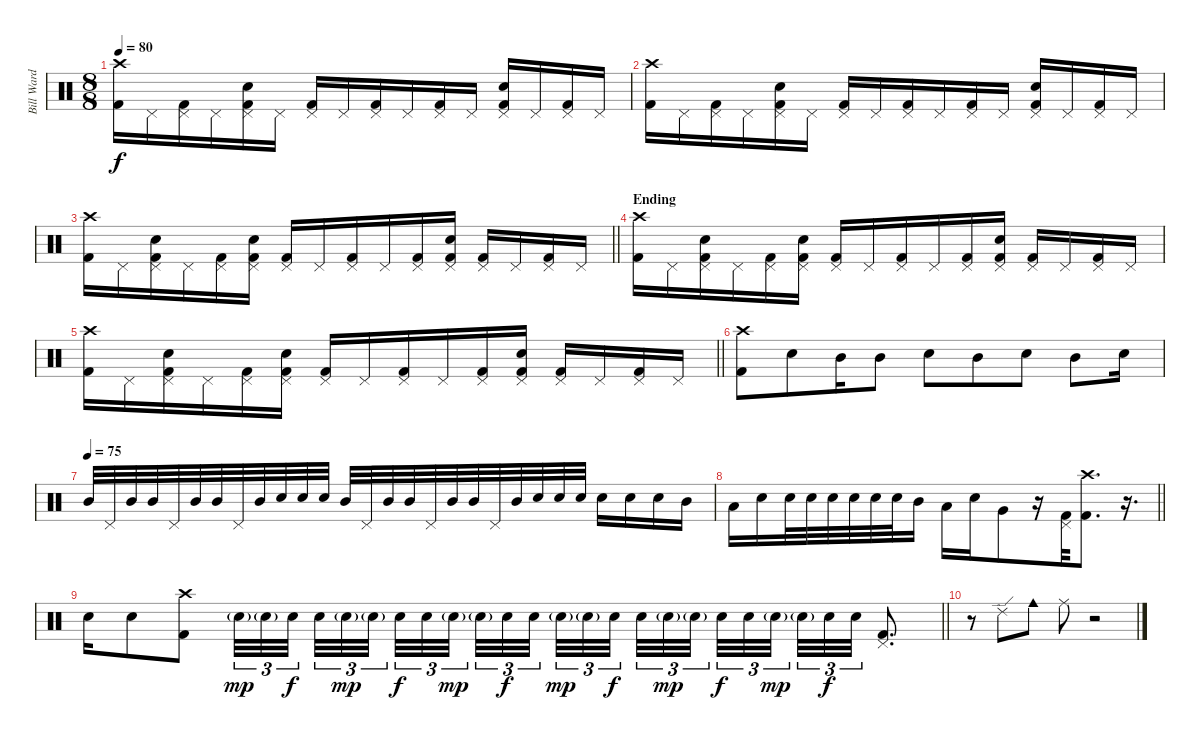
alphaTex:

\track ("Bill Ward (Drums)" "Bill Ward ") {instrument percussion}
\staff {score}
\articulation defaults
\ts (8 8)
\tempo 80
\clef neutral
\ks c
("Kick (hit) 2" "Crash high (hit)").16{dy f} "Pedal Hi-Hat (hit)".16 ("Kick (hit) 2" "Pedal Hi-Hat (hit)").16 "Pedal Hi-Hat (hit)".16 ("Kick (hit) 2" "Snare (hit) 2" "Pedal Hi-Hat (hit)").16 "Pedal Hi-Hat (hit)".16 ("Kick (hit) 2" "Pedal Hi-Hat (hit)").16 "Pedal Hi-Hat (hit)".16 ("Kick (hit) 2" "Pedal Hi-Hat (hit)").16 "Pedal Hi-Hat (hit)".16 ("Kick (hit) 2" "Pedal Hi-Hat (hit)").16 "Pedal Hi-Hat (hit)".16 ("Kick (hit) 2" "Snare (hit) 2" "Pedal Hi-Hat (hit)").16 "Pedal Hi-Hat (hit)".16 ("Kick (hit) 2" "Pedal Hi-Hat (hit)").16 "Pedal Hi-Hat (hit)".16 |
("Kick (hit) 2" "Crash high (hit)").16 "Pedal Hi-Hat (hit)".16 ("Kick (hit) 2" "Pedal Hi-Hat (hit)").16 "Pedal Hi-Hat (hit)".16 ("Kick (hit) 2" "Snare (hit) 2" "Pedal Hi-Hat (hit)").16 "Pedal Hi-Hat (hit)".16 ("Kick (hit) 2" "Pedal Hi-Hat (hit)").16 "Pedal Hi-Hat (hit)".16 ("Kick (hit) 2" "Pedal Hi-Hat (hit)").16 "Pedal Hi-Hat (hit)".16 ("Kick (hit) 2" "Pedal Hi-Hat (hit)").16 "Pedal Hi-Hat (hit)".16 ("Kick (hit) 2" "Snare (hit) 2" "Pedal Hi-Hat (hit)").16 "Pedal Hi-Hat (hit)".16 ("Kick (hit) 2" "Pedal Hi-Hat (hit)").16 "Pedal Hi-Hat (hit)".16 |
\barLineRight lightlight
("Kick (hit) 2" "Crash high (hit)").16 "Pedal Hi-Hat (hit)".16 ("Kick (hit) 2" "Snare (hit) 2" "Pedal Hi-Hat (hit)").16 "Pedal Hi-Hat (hit)".16 ("Kick (hit) 2" "Pedal Hi-Hat (hit)").16 ("Kick (hit) 2" "Snare (hit) 2" "Pedal Hi-Hat (hit)").16 ("Kick (hit) 2" "Pedal Hi-Hat (hit)").16 "Pedal Hi-Hat (hit)".16 ("Kick (hit) 2" "Pedal Hi-Hat (hit)").16 "Pedal Hi-Hat (hit)".16 ("Kick (hit) 2" "Pedal Hi-Hat (hit)").16 ("Kick (hit) 2" "Snare (hit) 2" "Pedal Hi-Hat (hit)").16 ("Kick (hit) 2" "Pedal Hi-Hat (hit)").16 "Pedal Hi-Hat (hit)".16 ("Kick (hit) 2" "Pedal Hi-Hat (hit)").16 "Pedal Hi-Hat (hit)".16 |
\section ("" "Ending ")
("Kick (hit) 2" "Crash high (hit)").16 "Pedal Hi-Hat (hit)".16 ("Kick (hit) 2" "Snare (hit) 2" "Pedal Hi-Hat (hit)").16 "Pedal Hi-Hat (hit)".16 ("Kick (hit) 2" "Pedal Hi-Hat (hit)").16 ("Kick (hit) 2" "Snare (hit) 2" "Pedal Hi-Hat (hit)").16 ("Kick (hit) 2" "Pedal Hi-Hat (hit)").16 "Pedal Hi-Hat (hit)".16 ("Kick (hit) 2" "Pedal Hi-Hat (hit)").16 "Pedal Hi-Hat (hit)".16 ("Kick (hit) 2" "Pedal Hi-Hat (hit)").16 ("Kick (hit) 2" "Snare (hit) 2" "Pedal Hi-Hat (hit)").16 ("Kick (hit) 2" "Pedal Hi-Hat (hit)").16 "Pedal Hi-Hat (hit)".16 ("Kick (hit) 2" "Pedal Hi-Hat (hit)").16 "Pedal Hi-Hat (hit)".16 |
\barLineRight lightlight
("Kick (hit) 2" "Crash high (hit)").16 "Pedal Hi-Hat (hit)".16 ("Kick (hit) 2" "Snare (hit) 2" "Pedal Hi-Hat (hit)").16 "Pedal Hi-Hat (hit)".16 ("Kick (hit) 2" "Pedal Hi-Hat (hit)").16 ("Kick (hit) 2" "Snare (hit) 2" "Pedal Hi-Hat (hit)").16 ("Kick (hit) 2" "Pedal Hi-Hat (hit)").16 "Pedal Hi-Hat (hit)".16 ("Kick (hit) 2" "Pedal Hi-Hat (hit)").16 "Pedal Hi-Hat (hit)".16 ("Kick (hit) 2" "Pedal Hi-Hat (hit)").16 ("Kick (hit) 2" "Snare (hit) 2" "Pedal Hi-Hat (hit)").16 ("Kick (hit) 2" "Pedal Hi-Hat (hit)").16 "Pedal Hi-Hat (hit)".16 ("Kick (hit) 2" "Pedal Hi-Hat (hit)").16 "Pedal Hi-Hat (hit)".16 |
("Kick (hit) 2" "Crash high (hit)").8 "Snare (hit) 2".8 "Mid Tom (hit)".16 "Mid Tom (hit)".8 "Snare (hit) 2".8 "Mid Tom (hit)".8 "Snare (hit) 2".8 "Mid Tom (hit)".8 "Snare (hit) 2".16 |
\tempo (75)
"Mid Tom (hit)".32 "Pedal Hi-Hat (hit)".32 "Mid Tom (hit)".32 "Mid Tom (hit)".32 "Pedal Hi-Hat (hit)".32 "Mid Tom (hit)".32 "Mid Tom (hit)".32 "Pedal Hi-Hat (hit)".32 "Mid Tom (hit)".32 "Snare (hit) 2".32 "Snare (hit) 2".32 "Snare (hit) 2".32 "Mid Tom (hit)".32 "Pedal Hi-Hat (hit)".32 "Mid Tom (hit)".32 "Mid Tom (hit)".32 "Pedal Hi-Hat (hit)".32 "Mid Tom (hit)".32 "Mid Tom (hit)".32 "Pedal Hi-Hat (hit)".32 "Mid Tom (hit)".32 "Snare (hit) 2".32 "Snare (hit) 2".32 "Snare (hit) 2".32 "Snare (hit) 2".16 "Snare (hit) 2".16 "Snare (hit) 2".16 "Mid Tom (hit)".16 |
\barLineRight lightlight "Low Tom (hit)".16 "Snare (hit) 2".16 "Snare (hit) 2".32 "Snare (hit) 2".32 "Snare (hit) 2".32 "Snare (hit) 2".32 "Snare (hit) 2".32 "Snare (hit) 2".32 "Mid Tom (hit)".16 "Low Tom (hit)".16 "Snare (hit) 2".16 "Very Low Tom (hit)".8
r.16 ("Kick (hit) 2" "Pedal Hi-Hat (hit)").32 ("Kick (hit) 2" "Crash high (hit)").8{d} r.16{d} |
\barLineRight lightlight "Snare (hit) 2".16 "Snare (hit) 2".8
("Kick (hit) 2" "Crash high (hit)").8 "Snare (hit) 2"{g}.32{tu (3 2) dy mp} "Snare (hit) 2"{g}.32{tu (3 2)} "Snare (hit) 2".32{tu (3 2) dy f} "Snare (hit) 2".32{tu (3 2)} "Snare (hit) 2"{g}.32{tu (3 2) dy mp} "Snare (hit) 2"{g}.32{tu (3 2) beam splitsecondary} "Snare (hit) 2".32{tu (3 2) dy f} "Snare (hit) 2".32{tu (3 2)} "Snare (hit) 2"{g}.32{tu (3 2) dy mp} "Snare (hit) 2"{g}.32{tu (3 2)} "Snare (hit) 2".32{tu (3 2) dy f} "Snare (hit) 2".32{tu (3 2) beam splitsecondary} "Snare (hit) 2"{g}.32{tu (3 2) dy mp} "Snare (hit) 2"{g}.32{tu (3 2)} "Snare (hit) 2".32{tu (3 2) dy f} "Snare (hit) 2".32{tu (3 2)} "Snare (hit) 2"{g}.32{tu (3 2) dy mp} "Snare (hit) 2"{g}.32{tu (3 2) beam splitsecondary} "Snare (hit) 2".32{tu (3 2) dy f} "Snare (hit) 2".32{tu (3 2)} "Snare (hit) 2"{g}.32{tu (3 2) dy mp} "Snare (hit) 2"{g}.32{tu (3 2)} "Snare (hit) 2".32{tu (3 2) dy f} "Snare (hit) 2".32{tu (3 2)} ("Kick (hit) 2" "Pedal Hi-Hat (hit)").8{d} |
r.8 "Ride (edge) 2".8 "Cowbell medium (hit)".8 "Ride (middle)".8 r.2
